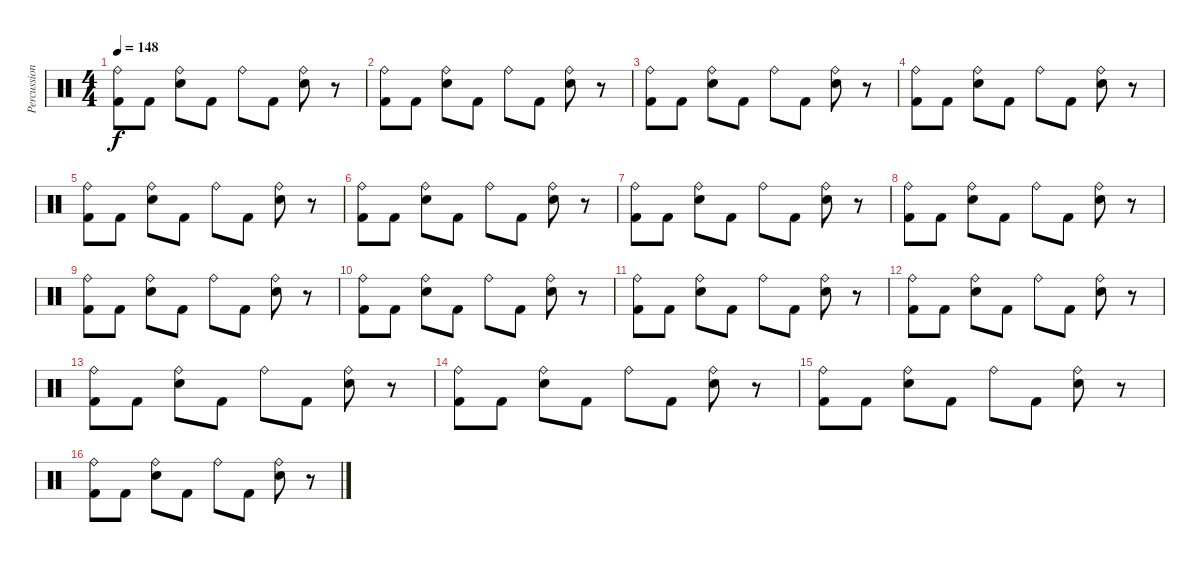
\track ("Percussions" "Percussion") {instrument percussion}
\staff {score}
\articulation defaults
\ts (4 4)
\tempo 148
\clef neutral
\ks c
("Kick (hit) 2" "Ride (bell)").8{dy f} "Kick (hit) 2".8 ("Electric Snare (hit)" "Ride (bell)").8 "Kick (hit) 2".8 "Ride (bell)".8 "Kick (hit) 2".8 ("Electric Snare (hit)" "Ride (bell)").8 r.8 |
("Kick (hit) 2" "Ride (bell)").8 "Kick (hit) 2".8 ("Electric Snare (hit)" "Ride (bell)").8 "Kick (hit) 2".8 "Ride (bell)".8 "Kick (hit) 2".8 ("Electric Snare (hit)" "Ride (bell)").8 r.8 |
("Kick (hit) 2" "Ride (bell)").8 "Kick (hit) 2".8 ("Electric Snare (hit)" "Ride (bell)").8 "Kick (hit) 2".8 "Ride (bell)".8 "Kick (hit) 2".8 ("Electric Snare (hit)" "Ride (bell)").8 r.8 |
("Kick (hit) 2" "Ride (bell)").8 "Kick (hit) 2".8 ("Electric Snare (hit)" "Ride (bell)").8 "Kick (hit) 2".8 "Ride (bell)".8 "Kick (hit) 2".8 ("Electric Snare (hit)" "Ride (bell)").8 r.8 |
("Kick (hit) 2" "Ride (bell)").8 "Kick (hit) 2".8 ("Electric Snare (hit)" "Ride (bell)").8 "Kick (hit) 2".8 "Ride (bell)".8 "Kick (hit) 2".8 ("Electric Snare (hit)" "Ride (bell)").8 r.8 |
("Kick (hit) 2" "Ride (bell)").8 "Kick (hit) 2".8 ("Electric Snare (hit)" "Ride (bell)").8 "Kick (hit) 2".8 "Ride (bell)".8 "Kick (hit) 2".8 ("Electric Snare (hit)" "Ride (bell)").8 r.8 |
("Kick (hit) 2" "Ride (bell)").8 "Kick (hit) 2".8 ("Electric Snare (hit)" "Ride (bell)").8 "Kick (hit) 2".8 "Ride (bell)".8 "Kick (hit) 2".8 ("Electric Snare (hit)" "Ride (bell)").8 r.8 |
("Kick (hit) 2" "Ride (bell)").8 "Kick (hit) 2".8 ("Electric Snare (hit)" "Ride (bell)").8 "Kick (hit) 2".8 "Ride (bell)".8 "Kick (hit) 2".8 ("Electric Snare (hit)" "Ride (bell)").8 r.8 |
("Kick (hit) 2" "Ride (bell)").8 "Kick (hit) 2".8 ("Electric Snare (hit)" "Ride (bell)").8 "Kick (hit) 2".8 "Ride (bell)".8 "Kick (hit) 2".8 ("Electric Snare (hit)" "Ride (bell)").8 r.8 |
("Kick (hit) 2" "Ride (bell)").8 "Kick (hit) 2".8 ("Electric Snare (hit)" "Ride (bell)").8 "Kick (hit) 2".8 "Ride (bell)".8 "Kick (hit) 2".8 ("Electric Snare (hit)" "Ride (bell)").8 r.8 |
("Kick (hit) 2" "Ride (bell)").8 "Kick (hit) 2".8 ("Electric Snare (hit)" "Ride (bell)").8 "Kick (hit) 2".8 "Ride (bell)".8 "Kick (hit) 2".8 ("Electric Snare (hit)" "Ride (bell)").8 r.8 |
("Kick (hit) 2" "Ride (bell)").8 "Kick (hit) 2".8 ("Electric Snare (hit)" "Ride (bell)").8 "Kick (hit) 2".8 "Ride (bell)".8 "Kick (hit) 2".8 ("Electric Snare (hit)" "Ride (bell)").8 r.8 |
("Kick (hit) 2" "Ride (bell)").8 "Kick (hit) 2".8 ("Electric Snare (hit)" "Ride (bell)").8 "Kick (hit) 2".8 "Ride (bell)".8 "Kick (hit) 2".8 ("Electric Snare (hit)" "Ride (bell)").8 r.8 |
("Kick (hit) 2" "Ride (bell)").8 "Kick (hit) 2".8 ("Electric Snare (hit)" "Ride (bell)").8 "Kick (hit) 2".8 "Ride (bell)".8 "Kick (hit) 2".8 ("Electric Snare (hit)" "Ride (bell)").8 r.8 |
("Kick (hit) 2" "Ride (bell)").8 "Kick (hit) 2".8 ("Electric Snare (hit)" "Ride (bell)").8 "Kick (hit) 2".8 "Ride (bell)".8 "Kick (hit) 2".8 ("Electric Snare (hit)" "Ride (bell)").8 r.8 |
("Kick (hit) 2" "Ride (bell)").8 "Kick (hit) 2".8 ("Electric Snare (hit)" "Ride (bell)").8 "Kick (hit) 2".8 "Ride (bell)".8 "Kick (hit) 2".8 ("Electric Snare (hit)" "Ride (bell)").8 r.8
